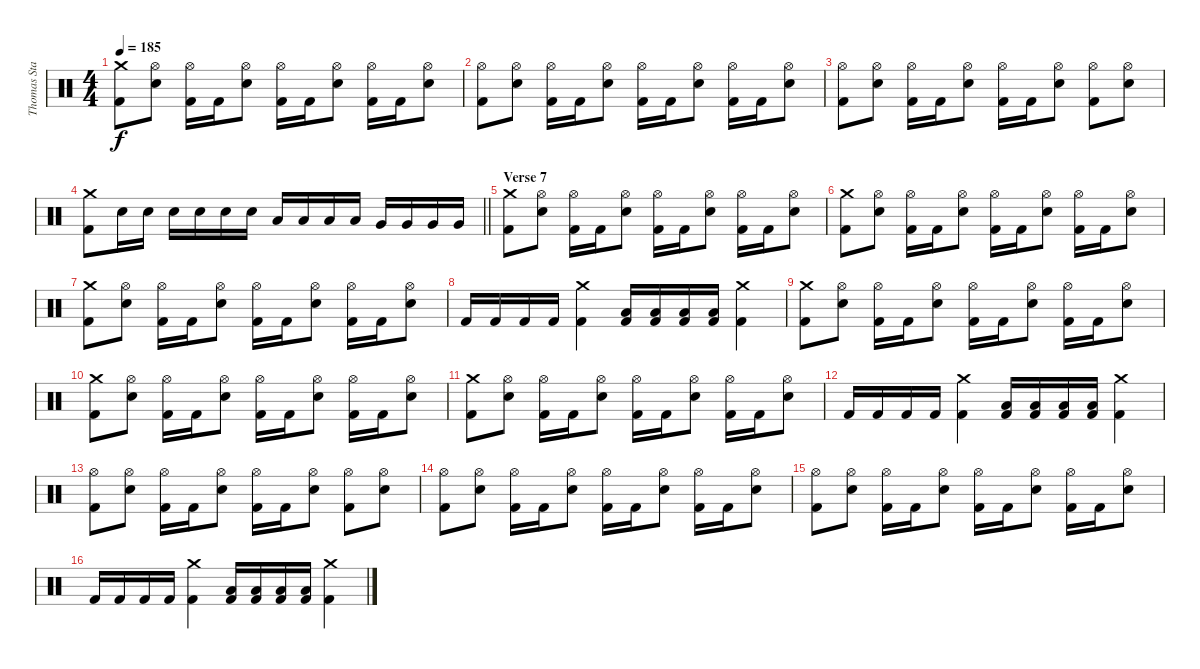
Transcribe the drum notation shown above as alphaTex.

\track ("Thomas Stauch" "Thomas Sta") {instrument percussion}
\staff {score}
\articulation defaults
\ts (4 4)
\tempo 185
\clef neutral
\ks c
("Crash medium (hit)" "Kick (hit) 2").8{dy f} ("Hi-Hat (open)" "Electric Snare (hit)").8 ("Hi-Hat (open)" "Kick (hit) 2").16 "Kick (hit) 2".16 ("Hi-Hat (open)" "Electric Snare (hit)").8 ("Hi-Hat (open)" "Kick (hit) 2").16 "Kick (hit) 2".16 ("Hi-Hat (open)" "Electric Snare (hit)").8 ("Hi-Hat (open)" "Kick (hit) 2").16 "Kick (hit) 2".16 ("Hi-Hat (open)" "Electric Snare (hit)").8 |
("Hi-Hat (open)" "Kick (hit) 2").8 ("Hi-Hat (open)" "Electric Snare (hit)").8 ("Hi-Hat (open)" "Kick (hit) 2").16 "Kick (hit) 2".16 ("Hi-Hat (open)" "Electric Snare (hit)").8 ("Hi-Hat (open)" "Kick (hit) 2").16 "Kick (hit) 2".16 ("Hi-Hat (open)" "Electric Snare (hit)").8 ("Hi-Hat (open)" "Kick (hit) 2").16 "Kick (hit) 2".16 ("Hi-Hat (open)" "Electric Snare (hit)").8 |
("Hi-Hat (open)" "Kick (hit) 2").8 ("Hi-Hat (open)" "Electric Snare (hit)").8 ("Hi-Hat (open)" "Kick (hit) 2").16 "Kick (hit) 2".16 ("Hi-Hat (open)" "Electric Snare (hit)").8 ("Hi-Hat (open)" "Kick (hit) 2").16 "Kick (hit) 2".16 ("Hi-Hat (open)" "Electric Snare (hit)").8 ("Hi-Hat (open)" "Kick (hit) 2").8 ("Hi-Hat (open)" "Electric Snare (hit)").8 |
\barLineRight lightlight
("Crash medium (hit)" "Kick (hit) 2").8 "Electric Snare (hit)".16 "Electric Snare (hit)".16 "Electric Snare (hit)".16 "Electric Snare (hit)".16 "Electric Snare (hit)".16 "Electric Snare (hit)".16 "Low Tom (hit)".16 "Low Tom (hit)".16 "Low Tom (hit)".16 "Low Tom (hit)".16 "Very Low Tom (hit)".16 "Very Low Tom (hit)".16 "Very Low Tom (hit)".16 "Very Low Tom (hit)".16 |
\section ("" "Verse 7")
("Crash medium (hit)" "Kick (hit) 2").8 ("Hi-Hat (open)" "Electric Snare (hit)").8 ("Hi-Hat (open)" "Kick (hit) 2").16 "Kick (hit) 2".16 ("Hi-Hat (open)" "Electric Snare (hit)").8 ("Hi-Hat (open)" "Kick (hit) 2").16 "Kick (hit) 2".16 ("Hi-Hat (open)" "Electric Snare (hit)").8 ("Hi-Hat (open)" "Kick (hit) 2").16 "Kick (hit) 2".16 ("Hi-Hat (open)" "Electric Snare (hit)").8 |
("Crash medium (hit)" "Kick (hit) 2").8 ("Hi-Hat (open)" "Electric Snare (hit)").8 ("Hi-Hat (open)" "Kick (hit) 2").16 "Kick (hit) 2".16 ("Hi-Hat (open)" "Electric Snare (hit)").8 ("Hi-Hat (open)" "Kick (hit) 2").16 "Kick (hit) 2".16 ("Hi-Hat (open)" "Electric Snare (hit)").8 ("Hi-Hat (open)" "Kick (hit) 2").16 "Kick (hit) 2".16 ("Hi-Hat (open)" "Electric Snare (hit)").8 |
("Crash medium (hit)" "Kick (hit) 2").8 ("Hi-Hat (open)" "Electric Snare (hit)").8 ("Hi-Hat (open)" "Kick (hit) 2").16 "Kick (hit) 2".16 ("Hi-Hat (open)" "Electric Snare (hit)").8 ("Hi-Hat (open)" "Kick (hit) 2").16 "Kick (hit) 2".16 ("Hi-Hat (open)" "Electric Snare (hit)").8 ("Hi-Hat (open)" "Kick (hit) 2").16 "Kick (hit) 2".16 ("Hi-Hat (open)" "Electric Snare (hit)").8 |
"Kick (hit) 2".16 "Kick (hit) 2".16 "Kick (hit) 2".16 "Kick (hit) 2".16 ("Crash medium (hit)" "Kick (hit) 2").4 ("Low Tom (hit)" "Kick (hit) 2").16 ("Low Tom (hit)" "Kick (hit) 2").16 ("Low Tom (hit)" "Kick (hit) 2").16 ("Low Tom (hit)" "Kick (hit) 2").16 ("Crash medium (hit)" "Kick (hit) 2").4 |
("Crash medium (hit)" "Kick (hit) 2").8 ("Hi-Hat (open)" "Electric Snare (hit)").8 ("Hi-Hat (open)" "Kick (hit) 2").16 "Kick (hit) 2".16 ("Hi-Hat (open)" "Electric Snare (hit)").8 ("Hi-Hat (open)" "Kick (hit) 2").16 "Kick (hit) 2".16 ("Hi-Hat (open)" "Electric Snare (hit)").8 ("Hi-Hat (open)" "Kick (hit) 2").16 "Kick (hit) 2".16 ("Hi-Hat (open)" "Electric Snare (hit)").8 |
("Crash medium (hit)" "Kick (hit) 2").8 ("Hi-Hat (open)" "Electric Snare (hit)").8 ("Hi-Hat (open)" "Kick (hit) 2").16 "Kick (hit) 2".16 ("Hi-Hat (open)" "Electric Snare (hit)").8 ("Hi-Hat (open)" "Kick (hit) 2").16 "Kick (hit) 2".16 ("Hi-Hat (open)" "Electric Snare (hit)").8 ("Hi-Hat (open)" "Kick (hit) 2").16 "Kick (hit) 2".16 ("Hi-Hat (open)" "Electric Snare (hit)").8 |
("Crash medium (hit)" "Kick (hit) 2").8 ("Hi-Hat (open)" "Electric Snare (hit)").8 ("Hi-Hat (open)" "Kick (hit) 2").16 "Kick (hit) 2".16 ("Hi-Hat (open)" "Electric Snare (hit)").8 ("Hi-Hat (open)" "Kick (hit) 2").16 "Kick (hit) 2".16 ("Hi-Hat (open)" "Electric Snare (hit)").8 ("Hi-Hat (open)" "Kick (hit) 2").16 "Kick (hit) 2".16 ("Hi-Hat (open)" "Electric Snare (hit)").8 |
"Kick (hit) 2".16 "Kick (hit) 2".16 "Kick (hit) 2".16 "Kick (hit) 2".16 ("Crash medium (hit)" "Kick (hit) 2").4 ("Low Tom (hit)" "Kick (hit) 2").16 ("Low Tom (hit)" "Kick (hit) 2").16 ("Low Tom (hit)" "Kick (hit) 2").16 ("Low Tom (hit)" "Kick (hit) 2").16 ("Crash medium (hit)" "Kick (hit) 2").4 |
("Hi-Hat (open)" "Kick (hit) 2").8 ("Hi-Hat (open)" "Electric Snare (hit)").8 ("Hi-Hat (open)" "Kick (hit) 2").16 "Kick (hit) 2".16 ("Hi-Hat (open)" "Electric Snare (hit)").8 ("Hi-Hat (open)" "Kick (hit) 2").16 "Kick (hit) 2".16 ("Hi-Hat (open)" "Electric Snare (hit)").8 ("Hi-Hat (open)" "Kick (hit) 2").8 ("Hi-Hat (open)" "Electric Snare (hit)").8 |
("Hi-Hat (open)" "Kick (hit) 2").8 ("Hi-Hat (open)" "Electric Snare (hit)").8 ("Hi-Hat (open)" "Kick (hit) 2").16 "Kick (hit) 2".16 ("Hi-Hat (open)" "Electric Snare (hit)").8 ("Hi-Hat (open)" "Kick (hit) 2").16 "Kick (hit) 2".16 ("Hi-Hat (open)" "Electric Snare (hit)").8 ("Hi-Hat (open)" "Kick (hit) 2").16 "Kick (hit) 2".16 ("Hi-Hat (open)" "Electric Snare (hit)").8 |
("Hi-Hat (open)" "Kick (hit) 2").8 ("Hi-Hat (open)" "Electric Snare (hit)").8 ("Hi-Hat (open)" "Kick (hit) 2").16 "Kick (hit) 2".16 ("Hi-Hat (open)" "Electric Snare (hit)").8 ("Hi-Hat (open)" "Kick (hit) 2").16 "Kick (hit) 2".16 ("Hi-Hat (open)" "Electric Snare (hit)").8 ("Hi-Hat (open)" "Kick (hit) 2").16 "Kick (hit) 2".16 ("Hi-Hat (open)" "Electric Snare (hit)").8 |
"Kick (hit) 2".16 "Kick (hit) 2".16 "Kick (hit) 2".16 "Kick (hit) 2".16 ("Crash medium (hit)" "Kick (hit) 2").4 ("Low Tom (hit)" "Kick (hit) 2").16 ("Low Tom (hit)" "Kick (hit) 2").16 ("Low Tom (hit)" "Kick (hit) 2").16 ("Low Tom (hit)" "Kick (hit) 2").16 ("Crash medium (hit)" "Kick (hit) 2").4
